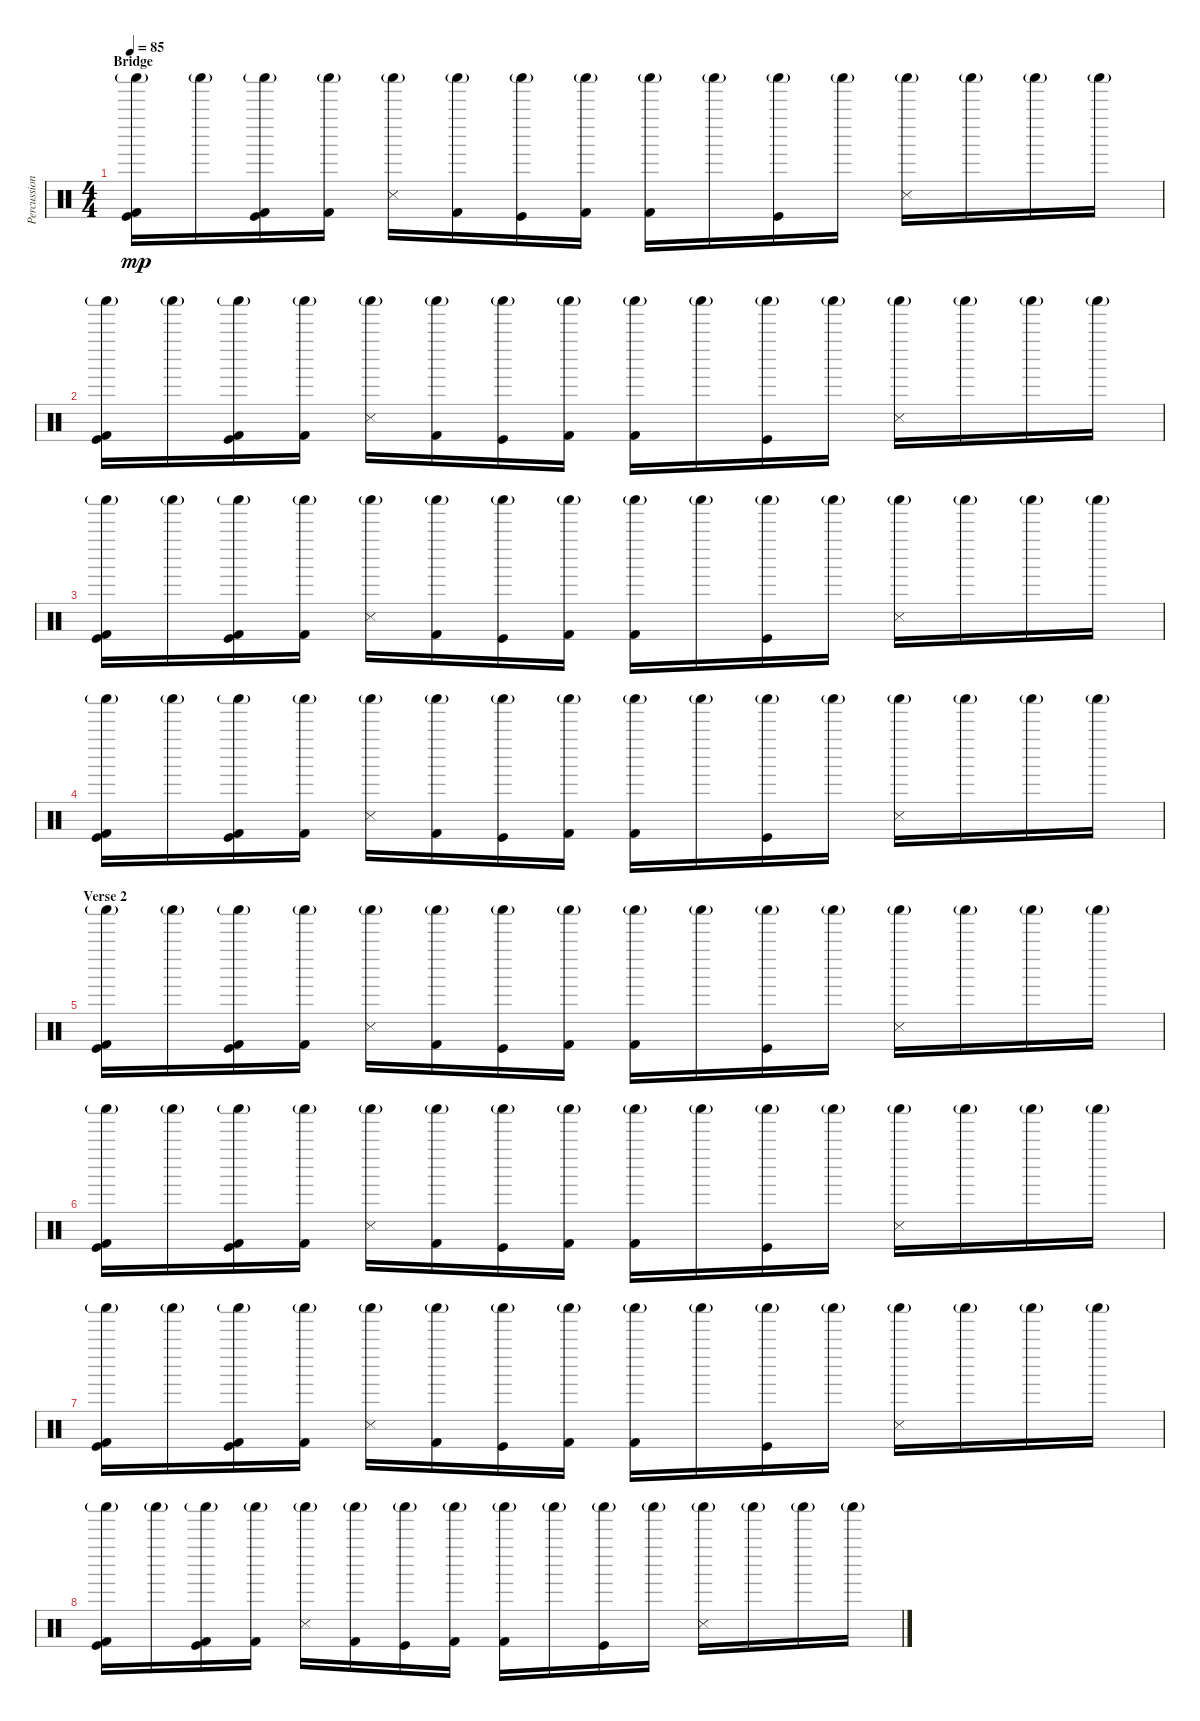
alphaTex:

\track ("Percussions" "Percussion") {instrument percussion}
\staff {score}
\articulation defaults
\ts (4 4)
\section ("" "Bridge")
\tempo 85
\clef neutral
\ks c
("Shaker (hit)"{g} "Kick (hit) 2" "Kick (hit)").16{dy mp} "Shaker (hit)"{g}.16 ("Shaker (hit)"{g} "Kick (hit) 2" "Kick (hit)").16 ("Shaker (hit)"{g} "Kick (hit) 2").16 ("Shaker (hit)"{g} "Snare (side stick) 3").16 ("Shaker (hit)"{g} "Kick (hit) 2").16 ("Shaker (hit)"{g} "Kick (hit)").16 ("Shaker (hit)"{g} "Kick (hit) 2").16 ("Shaker (hit)"{g} "Kick (hit) 2").16 "Shaker (hit)"{g}.16 ("Shaker (hit)"{g} "Kick (hit)").16 "Shaker (hit)"{g}.16 ("Shaker (hit)"{g} "Snare (side stick) 3").16 "Shaker (hit)"{g}.16 "Shaker (hit)"{g}.16 "Shaker (hit)"{g}.16 |
("Shaker (hit)"{g} "Kick (hit) 2" "Kick (hit)").16 "Shaker (hit)"{g}.16 ("Shaker (hit)"{g} "Kick (hit) 2" "Kick (hit)").16 ("Shaker (hit)"{g} "Kick (hit) 2").16 ("Shaker (hit)"{g} "Snare (side stick) 3").16 ("Shaker (hit)"{g} "Kick (hit) 2").16 ("Shaker (hit)"{g} "Kick (hit)").16 ("Shaker (hit)"{g} "Kick (hit) 2").16 ("Shaker (hit)"{g} "Kick (hit) 2").16 "Shaker (hit)"{g}.16 ("Shaker (hit)"{g} "Kick (hit)").16 "Shaker (hit)"{g}.16 ("Shaker (hit)"{g} "Snare (side stick) 3").16 "Shaker (hit)"{g}.16 "Shaker (hit)"{g}.16 "Shaker (hit)"{g}.16 |
("Shaker (hit)"{g} "Kick (hit) 2" "Kick (hit)").16 "Shaker (hit)"{g}.16 ("Shaker (hit)"{g} "Kick (hit) 2" "Kick (hit)").16 ("Shaker (hit)"{g} "Kick (hit) 2").16 ("Shaker (hit)"{g} "Snare (side stick) 3").16 ("Shaker (hit)"{g} "Kick (hit) 2").16 ("Shaker (hit)"{g} "Kick (hit)").16 ("Shaker (hit)"{g} "Kick (hit) 2").16 ("Shaker (hit)"{g} "Kick (hit) 2").16 "Shaker (hit)"{g}.16 ("Shaker (hit)"{g} "Kick (hit)").16 "Shaker (hit)"{g}.16 ("Shaker (hit)"{g} "Snare (side stick) 3").16 "Shaker (hit)"{g}.16 "Shaker (hit)"{g}.16 "Shaker (hit)"{g}.16 |
("Shaker (hit)"{g} "Kick (hit) 2" "Kick (hit)").16 "Shaker (hit)"{g}.16 ("Shaker (hit)"{g} "Kick (hit) 2" "Kick (hit)").16 ("Shaker (hit)"{g} "Kick (hit) 2").16 ("Shaker (hit)"{g} "Snare (side stick) 3").16 ("Shaker (hit)"{g} "Kick (hit) 2").16 ("Shaker (hit)"{g} "Kick (hit)").16 ("Shaker (hit)"{g} "Kick (hit) 2").16 ("Shaker (hit)"{g} "Kick (hit) 2").16 "Shaker (hit)"{g}.16 ("Shaker (hit)"{g} "Kick (hit)").16 "Shaker (hit)"{g}.16 ("Shaker (hit)"{g} "Snare (side stick) 3").16 "Shaker (hit)"{g}.16 "Shaker (hit)"{g}.16 "Shaker (hit)"{g}.16 |
\section ("" "Verse 2")
("Shaker (hit)"{g} "Kick (hit) 2" "Kick (hit)").16 "Shaker (hit)"{g}.16 ("Shaker (hit)"{g} "Kick (hit) 2" "Kick (hit)").16 ("Shaker (hit)"{g} "Kick (hit) 2").16 ("Shaker (hit)"{g} "Snare (side stick) 3").16 ("Shaker (hit)"{g} "Kick (hit) 2").16 ("Shaker (hit)"{g} "Kick (hit)").16 ("Shaker (hit)"{g} "Kick (hit) 2").16 ("Shaker (hit)"{g} "Kick (hit) 2").16 "Shaker (hit)"{g}.16 ("Shaker (hit)"{g} "Kick (hit)").16 "Shaker (hit)"{g}.16 ("Shaker (hit)"{g} "Snare (side stick) 3").16 "Shaker (hit)"{g}.16 "Shaker (hit)"{g}.16 "Shaker (hit)"{g}.16 |
("Shaker (hit)"{g} "Kick (hit) 2" "Kick (hit)").16 "Shaker (hit)"{g}.16 ("Shaker (hit)"{g} "Kick (hit) 2" "Kick (hit)").16 ("Shaker (hit)"{g} "Kick (hit) 2").16 ("Shaker (hit)"{g} "Snare (side stick) 3").16 ("Shaker (hit)"{g} "Kick (hit) 2").16 ("Shaker (hit)"{g} "Kick (hit)").16 ("Shaker (hit)"{g} "Kick (hit) 2").16 ("Shaker (hit)"{g} "Kick (hit) 2").16 "Shaker (hit)"{g}.16 ("Shaker (hit)"{g} "Kick (hit)").16 "Shaker (hit)"{g}.16 ("Shaker (hit)"{g} "Snare (side stick) 3").16 "Shaker (hit)"{g}.16 "Shaker (hit)"{g}.16 "Shaker (hit)"{g}.16 |
("Shaker (hit)"{g} "Kick (hit) 2" "Kick (hit)").16 "Shaker (hit)"{g}.16 ("Shaker (hit)"{g} "Kick (hit) 2" "Kick (hit)").16 ("Shaker (hit)"{g} "Kick (hit) 2").16 ("Shaker (hit)"{g} "Snare (side stick) 3").16 ("Shaker (hit)"{g} "Kick (hit) 2").16 ("Shaker (hit)"{g} "Kick (hit)").16 ("Shaker (hit)"{g} "Kick (hit) 2").16 ("Shaker (hit)"{g} "Kick (hit) 2").16 "Shaker (hit)"{g}.16 ("Shaker (hit)"{g} "Kick (hit)").16 "Shaker (hit)"{g}.16 ("Shaker (hit)"{g} "Snare (side stick) 3").16 "Shaker (hit)"{g}.16 "Shaker (hit)"{g}.16 "Shaker (hit)"{g}.16 |
("Shaker (hit)"{g} "Kick (hit) 2" "Kick (hit)").16 "Shaker (hit)"{g}.16 ("Shaker (hit)"{g} "Kick (hit) 2" "Kick (hit)").16 ("Shaker (hit)"{g} "Kick (hit) 2").16 ("Shaker (hit)"{g} "Snare (side stick) 3").16 ("Shaker (hit)"{g} "Kick (hit) 2").16 ("Shaker (hit)"{g} "Kick (hit)").16 ("Shaker (hit)"{g} "Kick (hit) 2").16 ("Shaker (hit)"{g} "Kick (hit) 2").16 "Shaker (hit)"{g}.16 ("Shaker (hit)"{g} "Kick (hit)").16 "Shaker (hit)"{g}.16 ("Shaker (hit)"{g} "Snare (side stick) 3").16 "Shaker (hit)"{g}.16 "Shaker (hit)"{g}.16 "Shaker (hit)"{g}.16
